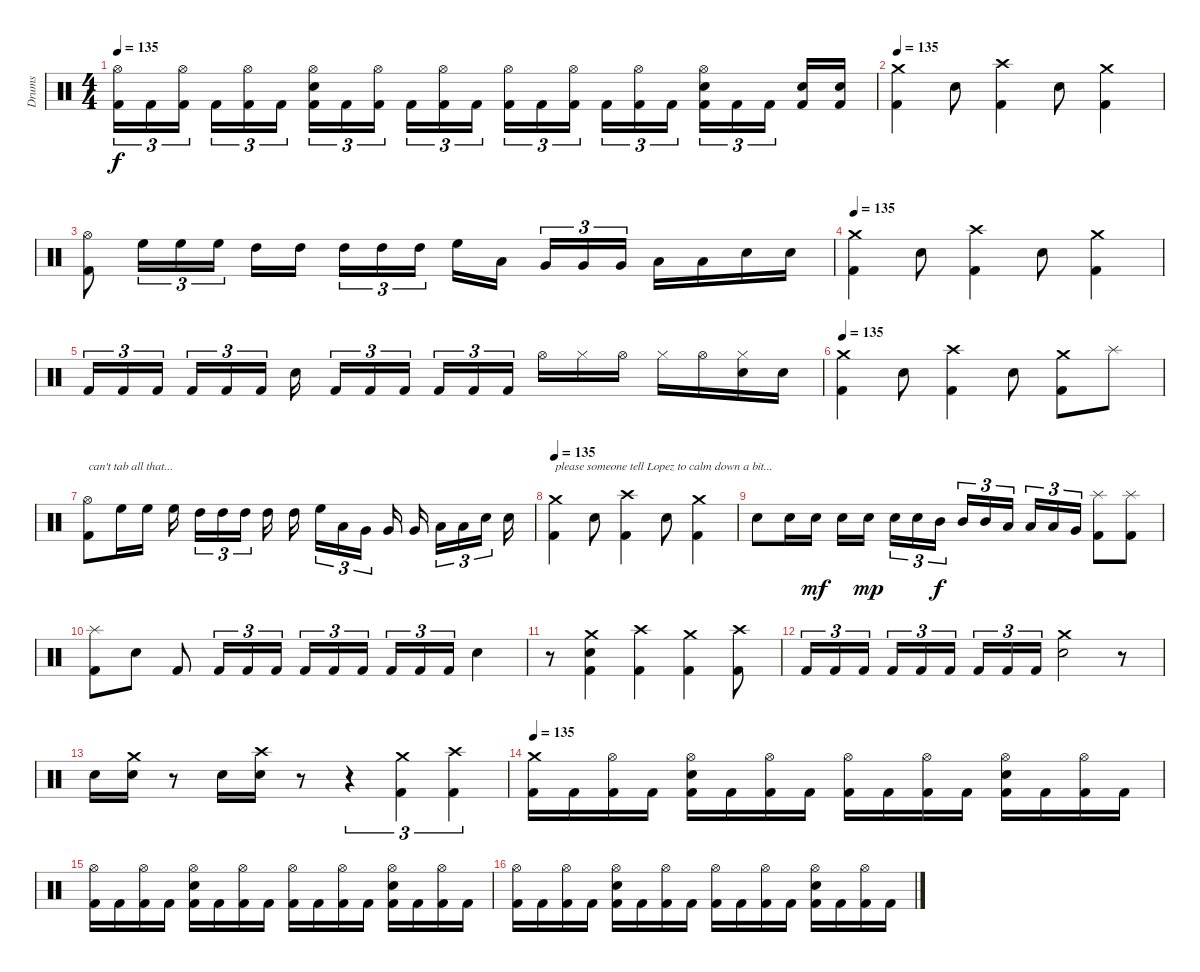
\track ("Drums" "Drums") {instrument percussion}
\staff {score}
\articulation defaults
\ts (4 4)
\tempo 135
\clef neutral
\ks c
("Hi-Hat (open)" "Kick (hit) 2").16{tu (3 2) dy f} "Kick (hit) 2".16{tu (3 2)} ("Hi-Hat (open)" "Kick (hit) 2").16{tu (3 2)} "Kick (hit) 2".16{tu (3 2)} ("Hi-Hat (open)" "Kick (hit) 2").16{tu (3 2)} "Kick (hit) 2".16{tu (3 2)} ("Hi-Hat (open)" "Electric Snare (hit)" "Kick (hit) 2").16{tu (3 2)} "Kick (hit) 2".16{tu (3 2)} ("Hi-Hat (open)" "Kick (hit) 2").16{tu (3 2)} "Kick (hit) 2".16{tu (3 2)} ("Hi-Hat (open)" "Kick (hit) 2").16{tu (3 2)} "Kick (hit) 2".16{tu (3 2)} ("Hi-Hat (open)" "Kick (hit) 2").16{tu (3 2)} "Kick (hit) 2".16{tu (3 2)} ("Hi-Hat (open)" "Kick (hit) 2").16{tu (3 2)} "Kick (hit) 2".16{tu (3 2)} ("Hi-Hat (open)" "Kick (hit) 2").16{tu (3 2)} "Kick (hit) 2".16{tu (3 2)} ("Hi-Hat (open)" "Electric Snare (hit)" "Kick (hit) 2").16{tu (3 2)} "Kick (hit) 2".16{tu (3 2)} "Kick (hit) 2".16{tu (3 2)} ("Electric Snare (hit)" "Kick (hit) 2").16 ("Electric Snare (hit)" "Kick (hit) 2").16 |
\tempo 135
("Crash medium (hit)" "Kick (hit) 2").4 "Electric Snare (hit)".8 ("Crash high (hit)" "Kick (hit) 2").4 "Electric Snare (hit)".8 ("Crash medium (hit)" "Kick (hit) 2").4 |
("Hi-Hat (open)" "Kick (hit) 2").8 "High Floor Tom (hit)".16{tu (3 2)} "High Floor Tom (hit)".16{tu (3 2)} "High Floor Tom (hit)".16{tu (3 2)} "High Tom (hit)".16 "High Tom (hit)".16 "High Tom (hit)".16{tu (3 2)} "High Tom (hit)".16{tu (3 2)} "High Tom (hit)".16{tu (3 2)} "High Floor Tom (hit)".16 "Low Tom (hit)".16 "Very Low Tom (hit)".16{tu (3 2)} "Very Low Tom (hit)".16{tu (3 2)} "Very Low Tom (hit)".16{tu (3 2)} "Low Tom (hit)".16 "Low Tom (hit)".16 "Electric Snare (hit)".16 "Electric Snare (hit)".16 |
\tempo 135
("Crash medium (hit)" "Kick (hit) 2").4 "Electric Snare (hit)".8 ("Crash high (hit)" "Kick (hit) 2").4 "Electric Snare (hit)".8 ("Crash medium (hit)" "Kick (hit) 2").4 |
"Kick (hit) 2".16{tu (3 2)} "Kick (hit) 2".16{tu (3 2)} "Kick (hit) 2".16{tu (3 2)} "Kick (hit) 2".16{tu (3 2)} "Kick (hit) 2".16{tu (3 2)} "Kick (hit) 2".16{tu (3 2)} "Electric Snare (hit)".16 "Kick (hit) 2".16{tu (3 2)} "Kick (hit) 2".16{tu (3 2)} "Kick (hit) 2".16{tu (3 2)} "Kick (hit) 2".16{tu (3 2)} "Kick (hit) 2".16{tu (3 2)} "Kick (hit) 2".16{tu (3 2)} "Hi-Hat (open)".16 "Hi-Hat (closed)".16 "Hi-Hat (open)".16 "Hi-Hat (closed)".16 "Hi-Hat (open)".16 ("Hi-Hat (closed)" "Electric Snare (hit)").16 "Electric Snare (hit)".16 |
\tempo 135
("Crash medium (hit)" "Kick (hit) 2").4 "Electric Snare (hit)".8 ("Crash high (hit)" "Kick (hit) 2").4 "Electric Snare (hit)".8 ("Crash medium (hit)" "Kick (hit) 2").8 "Splash (hit)".8 |
("Hi-Hat (open)" "Kick (hit) 2").8{txt "can't tab all that..."} "High Floor Tom (hit)".16 "High Floor Tom (hit)".16 "High Floor Tom (hit)".16 "High Tom (hit)".16{tu (3 2)} "High Tom (hit)".16{tu (3 2)} "High Tom (hit)".16{tu (3 2)} "High Tom (hit)".16 "High Tom (hit)".16 "High Floor Tom (hit)".16{tu (3 2)} "Low Tom (hit)".16{tu (3 2)} "Very Low Tom (hit)".16{tu (3 2)} "Very Low Tom (hit)".16 "Very Low Tom (hit)".16 "Low Tom (hit)".16{tu (3 2)} "Low Tom (hit)".16{tu (3 2)} "Electric Snare (hit)".16{tu (3 2)} "Electric Snare (hit)".16 |
\tempo 135
("Crash medium (hit)" "Kick (hit) 2").4{txt "please someone tell Lopez to calm down a bit..."} "Electric Snare (hit)".8 ("Crash high (hit)" "Kick (hit) 2").4 "Electric Snare (hit)".8 ("Crash medium (hit)" "Kick (hit) 2").4 |
"Electric Snare (hit)".8 "Electric Snare (hit)".16 "Electric Snare (hit)".16{dy mf} "Electric Snare (hit)".16 "Electric Snare (hit)".16{dy mp} "Electric Snare (hit)".16{tu (3 2)} "Electric Snare (hit)".16{tu (3 2)} "Mid Tom (hit)".16{tu (3 2) dy f} "Mid Tom (hit)".16{tu (3 2)} "Mid Tom (hit)".16{tu (3 2)} "Low Tom (hit)".16{tu (3 2)} "Low Tom (hit)".16{tu (3 2)} "Low Tom (hit)".16{tu (3 2)} "Very Low Tom (hit)".16{tu (3 2)} ("Splash (hit)" "Kick (hit) 2").8 ("Splash (hit)" "Kick (hit) 2").8 |
("Splash (hit)" "Kick (hit) 2").8 "Electric Snare (hit)".8 "Kick (hit) 2".8 "Kick (hit) 2".16{tu (3 2)} "Kick (hit) 2".16{tu (3 2)} "Kick (hit) 2".16{tu (3 2)} "Kick (hit) 2".16{tu (3 2)} "Kick (hit) 2".16{tu (3 2)} "Kick (hit) 2".16{tu (3 2)} "Kick (hit) 2".16{tu (3 2)} "Kick (hit) 2".16{tu (3 2)} "Kick (hit) 2".16{tu (3 2)} "Electric Snare (hit)".4 |
r.8 ("Crash medium (hit)" "Electric Snare (hit)" "Kick (hit) 2").4 ("Crash high (hit)" "Kick (hit) 2").4 ("Crash medium (hit)" "Kick (hit) 2").4 ("Crash high (hit)" "Kick (hit) 2").8 |
"Kick (hit) 2".16{tu (3 2)} "Kick (hit) 2".16{tu (3 2)} "Kick (hit) 2".16{tu (3 2)} "Kick (hit) 2".16{tu (3 2)} "Kick (hit) 2".16{tu (3 2)} "Kick (hit) 2".16{tu (3 2)} "Kick (hit) 2".16{tu (3 2)} "Kick (hit) 2".16{tu (3 2)} "Kick (hit) 2".16{tu (3 2)} ("Crash medium (hit)" "Electric Snare (hit)").2 r.8 |
"Electric Snare (hit)".16 ("Crash medium (hit)" "Electric Snare (hit)").16 r.8 "Electric Snare (hit)".16 ("Crash high (hit)" "Electric Snare (hit)").16 r.8 r.4{tu (3 2)} ("Crash medium (hit)" "Kick (hit) 2").4{tu (3 2)} ("Crash high (hit)" "Kick (hit) 2").4{tu (3 2)} |
\tempo 135
("Crash medium (hit)" "Kick (hit) 2").16 "Kick (hit) 2".16 ("Hi-Hat (open)" "Kick (hit) 2").16 "Kick (hit) 2".16 ("Hi-Hat (open)" "Electric Snare (hit)" "Kick (hit) 2").16 "Kick (hit) 2".16 ("Hi-Hat (open)" "Kick (hit) 2").16 "Kick (hit) 2".16 ("Hi-Hat (open)" "Kick (hit) 2").16 "Kick (hit) 2".16 ("Hi-Hat (open)" "Kick (hit) 2").16 "Kick (hit) 2".16 ("Hi-Hat (open)" "Electric Snare (hit)" "Kick (hit) 2").16 "Kick (hit) 2".16 ("Hi-Hat (open)" "Kick (hit) 2").16 "Kick (hit) 2".16 |
("Hi-Hat (open)" "Kick (hit) 2").16 "Kick (hit) 2".16 ("Hi-Hat (open)" "Kick (hit) 2").16 "Kick (hit) 2".16 ("Hi-Hat (open)" "Electric Snare (hit)" "Kick (hit) 2").16 "Kick (hit) 2".16 ("Hi-Hat (open)" "Kick (hit) 2").16 "Kick (hit) 2".16 ("Hi-Hat (open)" "Kick (hit) 2").16 "Kick (hit) 2".16 ("Hi-Hat (open)" "Kick (hit) 2").16 "Kick (hit) 2".16 ("Hi-Hat (open)" "Electric Snare (hit)" "Kick (hit) 2").16 "Kick (hit) 2".16 ("Hi-Hat (open)" "Kick (hit) 2").16 "Kick (hit) 2".16 |
("Hi-Hat (open)" "Kick (hit) 2").16 "Kick (hit) 2".16 ("Hi-Hat (open)" "Kick (hit) 2").16 "Kick (hit) 2".16 ("Hi-Hat (open)" "Electric Snare (hit)" "Kick (hit) 2").16 "Kick (hit) 2".16 ("Hi-Hat (open)" "Kick (hit) 2").16 "Kick (hit) 2".16 ("Hi-Hat (open)" "Kick (hit) 2").16 "Kick (hit) 2".16 ("Hi-Hat (open)" "Kick (hit) 2").16 "Kick (hit) 2".16 ("Hi-Hat (open)" "Electric Snare (hit)" "Kick (hit) 2").16 "Kick (hit) 2".16 ("Hi-Hat (open)" "Kick (hit) 2").16 "Kick (hit) 2".16
